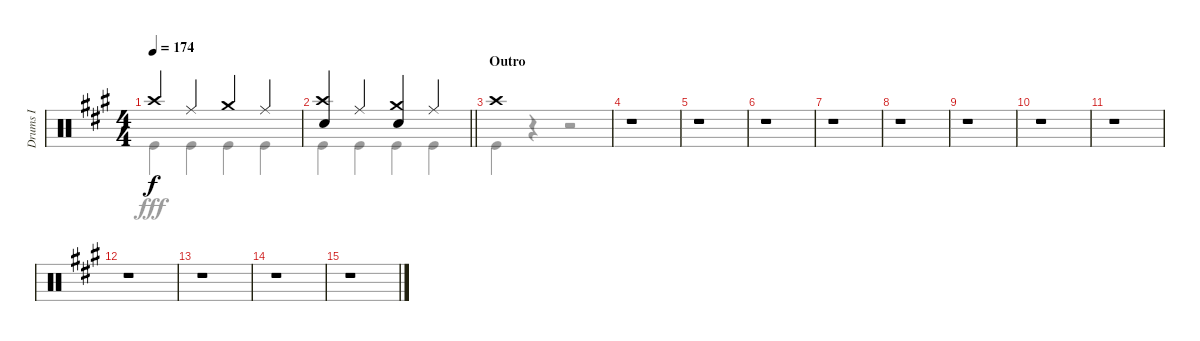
\track ("Drums I" "Drums I") {instrument percussion}
\staff {score}
\articulation defaults
\voice
\ts (4 4)
\tempo 174
\clef neutral
\ks a "Crash high (hit)".4{dy f} "Ride (middle)".4 "Crash medium (hit)".4 "Ride (middle)".4
|
\barLineRight lightlight
("Crash high (hit)" "Snare (hit) 2").4 "Ride (middle)".4 ("Crash medium (hit)" "Snare (hit) 2").4 "Ride (middle)".4 |
\section ("" "Outro")
"Crash high (hit)".1 |
r.1 |
r.1 |
r.1 |
r.1 |
r.1 |
r.1 |
r.1 |
r.1 |
r.1 |
r.1 |
r.1 |
r.1
\voice
\clef neutral
\ottava regular
\simile none
\ks a "Kick (hit)".4{dy fff} "Kick (hit)".4 "Kick (hit)".4 "Kick (hit)".4
|
\barLineRight lightlight "Kick (hit)".4 "Kick (hit)".4 "Kick (hit)".4 "Kick (hit)".4
|
"Kick (hit)".4 r.4 r.2 |
r.1 |
r.1 |
r.1 |
r.1 |
r.1 |
r.1 |
r.1 |
r.1 |
r.1 |
r.1 |
r.1 |
r.1
